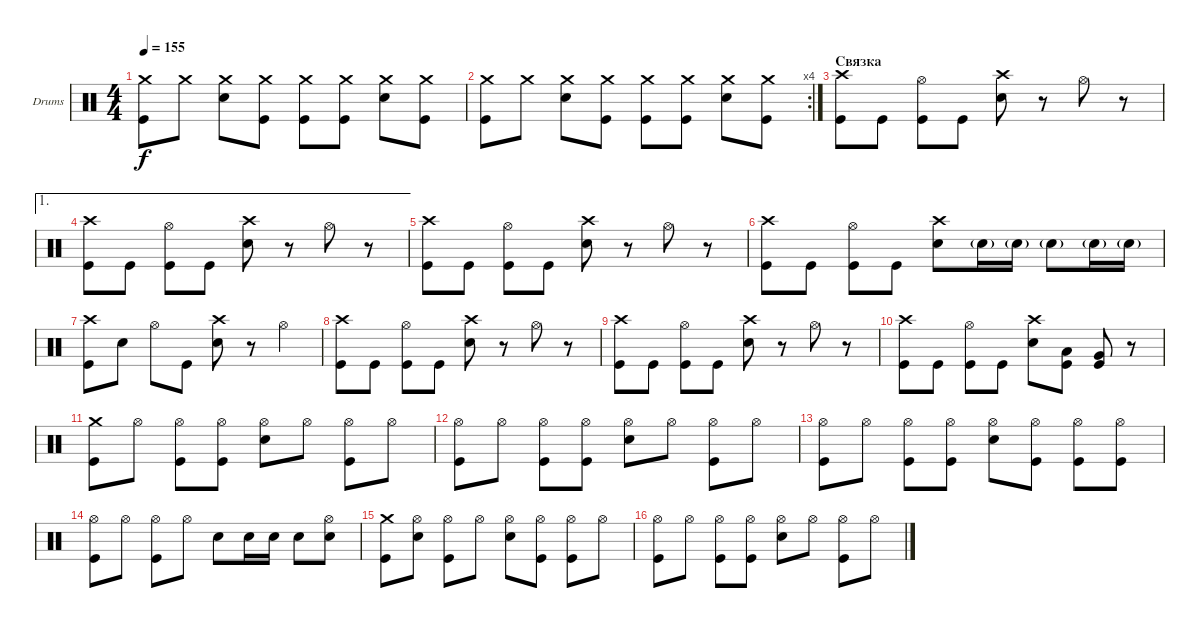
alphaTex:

\bracketExtendMode groupsimilarinstruments
\firstSystemTrackNameOrientation horizontal
\otherSystemsTrackNameOrientation horizontal
\track ("Drumkit" "Drums") {instrument percussion}
\staff {score}
\articulation defaults
\ts (4 4)
\tempo 155
\clef neutral
\ks c
("Crash medium (hit)" "Kick (hit)").8{dy f} "Crash medium (hit)".8 ("Snare (hit) 2" "Crash medium (hit)").8 ("Kick (hit)" "Crash medium (hit)").8 ("Kick (hit)" "Crash medium (hit)").8 ("Crash medium (hit)" "Kick (hit)").8 ("Snare (hit) 2" "Crash medium (hit)").8 ("Crash medium (hit)" "Kick (hit)").8 |
\rc 4
("Crash medium (hit)" "Kick (hit)").8 "Crash medium (hit)".8 ("Snare (hit) 2" "Crash medium (hit)").8 ("Kick (hit)" "Crash medium (hit)").8 ("Kick (hit)" "Crash medium (hit)").8 ("Crash medium (hit)" "Kick (hit)").8 ("Snare (hit) 2" "Crash medium (hit)").8 ("Crash medium (hit)" "Kick (hit)").8 |
\section ("" "Связка")
("Kick (hit)" "Crash high (hit)").8 "Kick (hit)".8 ("Kick (hit)" "Hi-Hat (open)").8 "Kick (hit)".8 ("Snare (hit) 2" "Crash high (hit)").8 r.8 "Hi-Hat (open)".8 r.8 |
\ae 1
("Kick (hit)" "Crash high (hit)").8 "Kick (hit)".8 ("Kick (hit)" "Hi-Hat (open)").8 "Kick (hit)".8 ("Snare (hit) 2" "Crash high (hit)").8 r.8 "Hi-Hat (open)".8 r.8 |
("Kick (hit)" "Crash high (hit)").8 "Kick (hit)".8 ("Kick (hit)" "Hi-Hat (open)").8 "Kick (hit)".8 ("Snare (hit) 2" "Crash high (hit)").8 r.8 "Hi-Hat (open)".8 r.8 |
("Kick (hit)" "Crash high (hit)").8 "Kick (hit)".8 ("Kick (hit)" "Hi-Hat (open)").8 "Kick (hit)".8 ("Snare (hit) 2" "Crash high (hit)").8 "Snare (hit) 2"{g}.16 "Snare (hit) 2"{g}.16 "Snare (hit) 2"{g}.8 "Snare (hit) 2"{g}.16 "Snare (hit) 2"{g}.16 |
("Kick (hit)" "Crash high (hit)").8 "Snare (hit) 2".8 "Hi-Hat (open)".8 "Kick (hit)".8 ("Snare (hit) 2" "Crash high (hit)").8 r.8 "Hi-Hat (open)".4 |
("Kick (hit)" "Crash high (hit)").8 "Kick (hit)".8 ("Kick (hit)" "Hi-Hat (open)").8 "Kick (hit)".8 ("Snare (hit) 2" "Crash high (hit)").8 r.8 "Hi-Hat (open)".8 r.8 |
("Kick (hit)" "Crash high (hit)").8 "Kick (hit)".8 ("Kick (hit)" "Hi-Hat (open)").8 "Kick (hit)".8 ("Snare (hit) 2" "Crash high (hit)").8 r.8 "Hi-Hat (open)".8 r.8 |
("Kick (hit)" "Crash high (hit)").8 "Kick (hit)".8 ("Kick (hit)" "Hi-Hat (open)").8 "Kick (hit)".8 ("Snare (hit) 2" "Crash high (hit)").8 ("Low Tom (hit)" "Kick (hit)").8 ("Very Low Tom (hit)" "Kick (hit)").8 r.8 |
("Kick (hit)" "Crash medium (hit)").8 "Hi-Hat (open)".8 ("Hi-Hat (open)" "Kick (hit)").8 ("Hi-Hat (open)" "Kick (hit)").8 ("Hi-Hat (open)" "Snare (hit) 2").8 "Hi-Hat (open)".8 ("Hi-Hat (open)" "Kick (hit)").8 "Hi-Hat (open)".8 |
("Hi-Hat (open)" "Kick (hit)").8 "Hi-Hat (open)".8 ("Hi-Hat (open)" "Kick (hit)").8 ("Hi-Hat (open)" "Kick (hit)").8 ("Hi-Hat (open)" "Snare (hit) 2").8 "Hi-Hat (open)".8 ("Hi-Hat (open)" "Kick (hit)").8 "Hi-Hat (open)".8 |
("Hi-Hat (open)" "Kick (hit)").8 "Hi-Hat (open)".8 ("Hi-Hat (open)" "Kick (hit)").8 ("Hi-Hat (open)" "Kick (hit)").8 ("Hi-Hat (open)" "Snare (hit) 2").8 ("Kick (hit)" "Hi-Hat (open)").8 ("Hi-Hat (open)" "Kick (hit)").8 ("Hi-Hat (open)" "Kick (hit)").8 |
("Hi-Hat (open)" "Kick (hit)").8 "Hi-Hat (open)".8 ("Hi-Hat (open)" "Kick (hit)").8 "Hi-Hat (open)".8 "Snare (hit) 2".8 "Snare (hit) 2".16 "Snare (hit) 2".16 "Snare (hit) 2".8 ("Snare (hit) 2" "Hi-Hat (open)").8 |
("Kick (hit)" "Crash medium (hit)").8 ("Hi-Hat (open)" "Snare (hit) 2").8 ("Hi-Hat (open)" "Kick (hit)").8 "Hi-Hat (open)".8 ("Hi-Hat (open)" "Snare (hit) 2").8 ("Hi-Hat (open)" "Kick (hit)").8 ("Hi-Hat (open)" "Kick (hit)").8 "Hi-Hat (open)".8 |
("Hi-Hat (open)" "Kick (hit)").8 "Hi-Hat (open)".8 ("Hi-Hat (open)" "Kick (hit)").8 ("Hi-Hat (open)" "Kick (hit)").8 ("Hi-Hat (open)" "Snare (hit) 2").8 "Hi-Hat (open)".8 ("Hi-Hat (open)" "Kick (hit)").8 "Hi-Hat (open)".8
